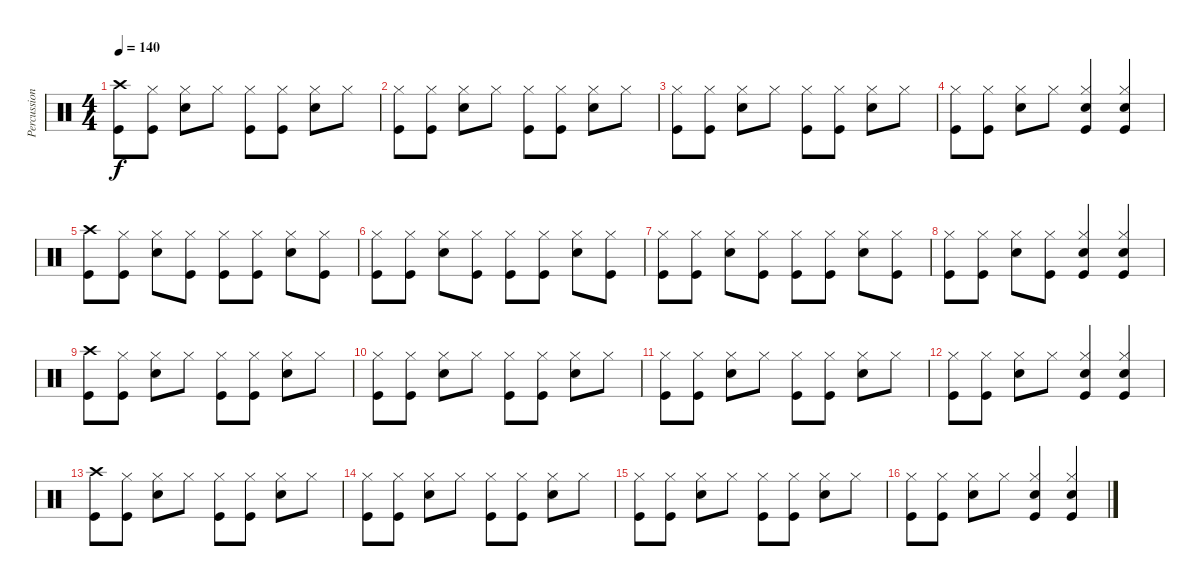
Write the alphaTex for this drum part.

\track ("Percussioni" "Percussion") {instrument percussion}
\staff {score}
\articulation defaults
\ts (4 4)
\tempo 140
\clef neutral
\ks c
("Crash high (hit)" "Kick (hit)").8{dy f} ("Hi-Hat (closed)" "Kick (hit)").8 ("Hi-Hat (closed)" "Snare (hit) 2").8 "Hi-Hat (closed)".8 ("Hi-Hat (closed)" "Kick (hit)").8 ("Hi-Hat (closed)" "Kick (hit)").8 ("Hi-Hat (closed)" "Snare (hit) 2").8 "Hi-Hat (closed)".8 |
("Hi-Hat (closed)" "Kick (hit)").8 ("Hi-Hat (closed)" "Kick (hit)").8 ("Hi-Hat (closed)" "Snare (hit) 2").8 "Hi-Hat (closed)".8 ("Hi-Hat (closed)" "Kick (hit)").8 ("Hi-Hat (closed)" "Kick (hit)").8 ("Hi-Hat (closed)" "Snare (hit) 2").8 "Hi-Hat (closed)".8 |
("Hi-Hat (closed)" "Kick (hit)").8 ("Hi-Hat (closed)" "Kick (hit)").8 ("Hi-Hat (closed)" "Snare (hit) 2").8 "Hi-Hat (closed)".8 ("Hi-Hat (closed)" "Kick (hit)").8 ("Hi-Hat (closed)" "Kick (hit)").8 ("Hi-Hat (closed)" "Snare (hit) 2").8 "Hi-Hat (closed)".8 |
("Hi-Hat (closed)" "Kick (hit)").8 ("Hi-Hat (closed)" "Kick (hit)").8 ("Hi-Hat (closed)" "Snare (hit) 2").8 "Hi-Hat (closed)".8 ("Hi-Hat (closed)" "Snare (hit) 2" "Kick (hit)").4 ("Hi-Hat (closed)" "Snare (hit) 2" "Kick (hit)").4 |
("Crash high (hit)" "Kick (hit)").8 ("Hi-Hat (closed)" "Kick (hit)").8 ("Hi-Hat (closed)" "Snare (hit) 2").8 ("Hi-Hat (closed)" "Kick (hit)").8 ("Hi-Hat (closed)" "Kick (hit)").8 ("Hi-Hat (closed)" "Kick (hit)").8 ("Hi-Hat (closed)" "Snare (hit) 2").8 ("Hi-Hat (closed)" "Kick (hit)").8 |
("Hi-Hat (closed)" "Kick (hit)").8 ("Hi-Hat (closed)" "Kick (hit)").8 ("Hi-Hat (closed)" "Snare (hit) 2").8 ("Hi-Hat (closed)" "Kick (hit)").8 ("Hi-Hat (closed)" "Kick (hit)").8 ("Hi-Hat (closed)" "Kick (hit)").8 ("Hi-Hat (closed)" "Snare (hit) 2").8 ("Hi-Hat (closed)" "Kick (hit)").8 |
("Hi-Hat (closed)" "Kick (hit)").8 ("Hi-Hat (closed)" "Kick (hit)").8 ("Hi-Hat (closed)" "Snare (hit) 2").8 ("Hi-Hat (closed)" "Kick (hit)").8 ("Hi-Hat (closed)" "Kick (hit)").8 ("Hi-Hat (closed)" "Kick (hit)").8 ("Hi-Hat (closed)" "Snare (hit) 2").8 ("Hi-Hat (closed)" "Kick (hit)").8 |
("Hi-Hat (closed)" "Kick (hit)").8 ("Hi-Hat (closed)" "Kick (hit)").8 ("Hi-Hat (closed)" "Snare (hit) 2").8 ("Hi-Hat (closed)" "Kick (hit)").8 ("Hi-Hat (closed)" "Snare (hit) 2" "Kick (hit)").4 ("Hi-Hat (closed)" "Snare (hit) 2" "Kick (hit)").4 |
("Crash high (hit)" "Kick (hit)").8 ("Hi-Hat (closed)" "Kick (hit)").8 ("Hi-Hat (closed)" "Snare (hit) 2").8 "Hi-Hat (closed)".8 ("Hi-Hat (closed)" "Kick (hit)").8 ("Hi-Hat (closed)" "Kick (hit)").8 ("Hi-Hat (closed)" "Snare (hit) 2").8 "Hi-Hat (closed)".8 |
("Hi-Hat (closed)" "Kick (hit)").8 ("Hi-Hat (closed)" "Kick (hit)").8 ("Hi-Hat (closed)" "Snare (hit) 2").8 "Hi-Hat (closed)".8 ("Hi-Hat (closed)" "Kick (hit)").8 ("Hi-Hat (closed)" "Kick (hit)").8 ("Hi-Hat (closed)" "Snare (hit) 2").8 "Hi-Hat (closed)".8 |
("Hi-Hat (closed)" "Kick (hit)").8 ("Hi-Hat (closed)" "Kick (hit)").8 ("Hi-Hat (closed)" "Snare (hit) 2").8 "Hi-Hat (closed)".8 ("Hi-Hat (closed)" "Kick (hit)").8 ("Hi-Hat (closed)" "Kick (hit)").8 ("Hi-Hat (closed)" "Snare (hit) 2").8 "Hi-Hat (closed)".8 |
("Hi-Hat (closed)" "Kick (hit)").8 ("Hi-Hat (closed)" "Kick (hit)").8 ("Hi-Hat (closed)" "Snare (hit) 2").8 "Hi-Hat (closed)".8 ("Hi-Hat (closed)" "Snare (hit) 2" "Kick (hit)").4 ("Hi-Hat (closed)" "Snare (hit) 2" "Kick (hit)").4 |
("Crash high (hit)" "Kick (hit)").8 ("Hi-Hat (closed)" "Kick (hit)").8 ("Hi-Hat (closed)" "Snare (hit) 2").8 "Hi-Hat (closed)".8 ("Hi-Hat (closed)" "Kick (hit)").8 ("Hi-Hat (closed)" "Kick (hit)").8 ("Hi-Hat (closed)" "Snare (hit) 2").8 "Hi-Hat (closed)".8 |
("Hi-Hat (closed)" "Kick (hit)").8 ("Hi-Hat (closed)" "Kick (hit)").8 ("Hi-Hat (closed)" "Snare (hit) 2").8 "Hi-Hat (closed)".8 ("Hi-Hat (closed)" "Kick (hit)").8 ("Hi-Hat (closed)" "Kick (hit)").8 ("Hi-Hat (closed)" "Snare (hit) 2").8 "Hi-Hat (closed)".8 |
("Hi-Hat (closed)" "Kick (hit)").8 ("Hi-Hat (closed)" "Kick (hit)").8 ("Hi-Hat (closed)" "Snare (hit) 2").8 "Hi-Hat (closed)".8 ("Hi-Hat (closed)" "Kick (hit)").8 ("Hi-Hat (closed)" "Kick (hit)").8 ("Hi-Hat (closed)" "Snare (hit) 2").8 "Hi-Hat (closed)".8 |
("Hi-Hat (closed)" "Kick (hit)").8 ("Hi-Hat (closed)" "Kick (hit)").8 ("Hi-Hat (closed)" "Snare (hit) 2").8 "Hi-Hat (closed)".8 ("Hi-Hat (closed)" "Snare (hit) 2" "Kick (hit)").4 ("Hi-Hat (closed)" "Snare (hit) 2" "Kick (hit)").4
